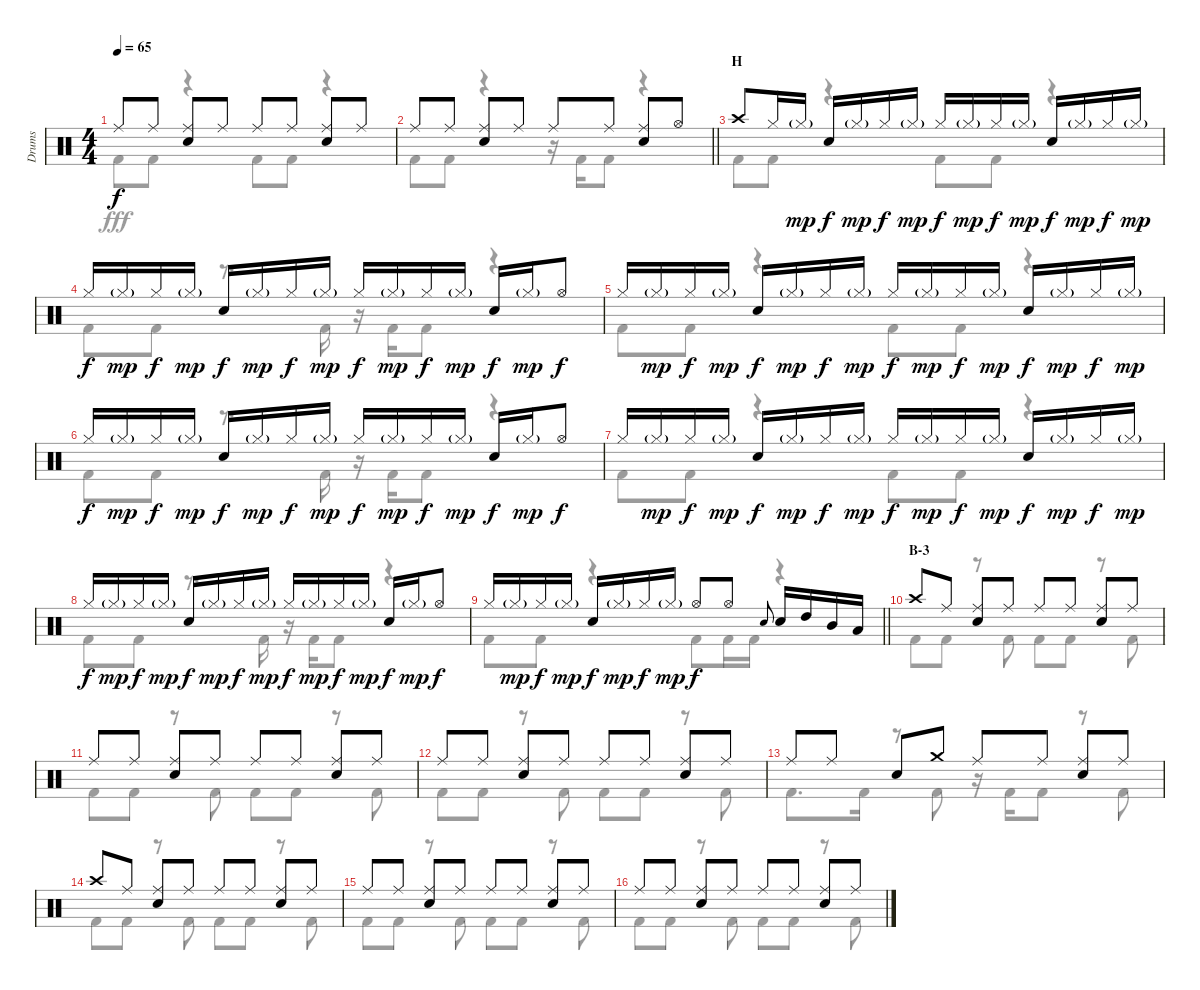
\track ("Drums" "Drums") {instrument percussion}
\staff {score}
\articulation defaults
\voice
\ts (4 4)
\tempo 65
\clef neutral
\ks c "Ride (middle)".8{dy f} "Ride (middle)".8
("Ride (middle)" "Snare (hit) 2").8 "Ride (middle)".8 "Ride (middle)".8 "Ride (middle)".8 ("Ride (middle)" "Snare (hit) 2").8 "Ride (middle)".8 |
\barLineRight lightlight "Ride (middle)".8 "Ride (middle)".8
("Ride (middle)" "Snare (hit) 2").8 "Ride (middle)".8 "Ride (middle)".8 "Ride (middle)".8 ("Ride (middle)" "Snare (hit) 2").8 "Hi-Hat (open)".8 |
\section ("" "H")
"Crash high (hit)".8 "Hi-Hat (closed)".16 "Hi-Hat (closed)"{g}.16{dy mp} "Snare (hit) 2".16{dy f} "Hi-Hat (closed)"{g}.16{dy mp} "Hi-Hat (closed)".16{dy f} "Hi-Hat (closed)"{g}.16{dy mp} "Hi-Hat (closed)".16{dy f} "Hi-Hat (closed)"{g}.16{dy mp} "Hi-Hat (closed)".16{dy f} "Hi-Hat (closed)"{g}.16{dy mp} "Snare (hit) 2".16{dy f} "Hi-Hat (closed)"{g}.16{dy mp} "Hi-Hat (closed)".16{dy f} "Hi-Hat (closed)"{g}.16{dy mp} |
"Hi-Hat (closed)".16{dy f} "Hi-Hat (closed)"{g}.16{dy mp} "Hi-Hat (closed)".16{dy f} "Hi-Hat (closed)"{g}.16{dy mp} "Snare (hit) 2".16{dy f} "Hi-Hat (closed)"{g}.16{dy mp} "Hi-Hat (closed)".16{dy f} "Hi-Hat (closed)"{g}.16{dy mp} "Hi-Hat (closed)".16{dy f} "Hi-Hat (closed)"{g}.16{dy mp} "Hi-Hat (closed)".16{dy f} "Hi-Hat (closed)"{g}.16{dy mp} "Snare (hit) 2".16{dy f} "Hi-Hat (closed)"{g}.16{dy mp} "Hi-Hat (open)".8{dy f} |
"Hi-Hat (closed)".16 "Hi-Hat (closed)"{g}.16{dy mp} "Hi-Hat (closed)".16{dy f} "Hi-Hat (closed)"{g}.16{dy mp} "Snare (hit) 2".16{dy f} "Hi-Hat (closed)"{g}.16{dy mp} "Hi-Hat (closed)".16{dy f} "Hi-Hat (closed)"{g}.16{dy mp} "Hi-Hat (closed)".16{dy f} "Hi-Hat (closed)"{g}.16{dy mp} "Hi-Hat (closed)".16{dy f} "Hi-Hat (closed)"{g}.16{dy mp} "Snare (hit) 2".16{dy f} "Hi-Hat (closed)"{g}.16{dy mp} "Hi-Hat (closed)".16{dy f} "Hi-Hat (closed)"{g}.16{dy mp} |
"Hi-Hat (closed)".16{dy f} "Hi-Hat (closed)"{g}.16{dy mp} "Hi-Hat (closed)".16{dy f} "Hi-Hat (closed)"{g}.16{dy mp} "Snare (hit) 2".16{dy f} "Hi-Hat (closed)"{g}.16{dy mp} "Hi-Hat (closed)".16{dy f} "Hi-Hat (closed)"{g}.16{dy mp} "Hi-Hat (closed)".16{dy f} "Hi-Hat (closed)"{g}.16{dy mp} "Hi-Hat (closed)".16{dy f} "Hi-Hat (closed)"{g}.16{dy mp} "Snare (hit) 2".16{dy f} "Hi-Hat (closed)"{g}.16{dy mp} "Hi-Hat (open)".8{dy f} |
"Hi-Hat (closed)".16 "Hi-Hat (closed)"{g}.16{dy mp} "Hi-Hat (closed)".16{dy f} "Hi-Hat (closed)"{g}.16{dy mp} "Snare (hit) 2".16{dy f} "Hi-Hat (closed)"{g}.16{dy mp} "Hi-Hat (closed)".16{dy f} "Hi-Hat (closed)"{g}.16{dy mp} "Hi-Hat (closed)".16{dy f} "Hi-Hat (closed)"{g}.16{dy mp} "Hi-Hat (closed)".16{dy f} "Hi-Hat (closed)"{g}.16{dy mp} "Snare (hit) 2".16{dy f} "Hi-Hat (closed)"{g}.16{dy mp} "Hi-Hat (closed)".16{dy f} "Hi-Hat (closed)"{g}.16{dy mp} |
"Hi-Hat (closed)".16{dy f} "Hi-Hat (closed)"{g}.16{dy mp} "Hi-Hat (closed)".16{dy f} "Hi-Hat (closed)"{g}.16{dy mp} "Snare (hit) 2".16{dy f} "Hi-Hat (closed)"{g}.16{dy mp} "Hi-Hat (closed)".16{dy f} "Hi-Hat (closed)"{g}.16{dy mp} "Hi-Hat (closed)".16{dy f} "Hi-Hat (closed)"{g}.16{dy mp} "Hi-Hat (closed)".16{dy f} "Hi-Hat (closed)"{g}.16{dy mp} "Snare (hit) 2".16{dy f} "Hi-Hat (closed)"{g}.16{dy mp} "Hi-Hat (open)".8{dy f} |
\barLineRight lightlight "Hi-Hat (closed)".16 "Hi-Hat (closed)"{g}.16{dy mp} "Hi-Hat (closed)".16{dy f} "Hi-Hat (closed)"{g}.16{dy mp} "Snare (hit) 2".16{dy f} "Hi-Hat (closed)"{g}.16{dy mp} "Hi-Hat (closed)".16{dy f} "Hi-Hat (closed)"{g}.16{dy mp} "Hi-Hat (open)".8{dy f} "Hi-Hat (open)".8 "Snare (hit) 2".8{gr onbeat} "Snare (hit) 2".16 "High Tom (hit)".16 "Mid Tom (hit)".16 "Low Tom (hit)".16
|
\section ("" "B-3")
"Crash high (hit)".8 "Ride (middle)".8 ("Ride (middle)" "Snare (hit) 2").8 "Ride (middle)".8 "Ride (middle)".8 "Ride (middle)".8 ("Ride (middle)" "Snare (hit) 2").8 "Ride (middle)".8 |
"Ride (middle)".8 "Ride (middle)".8 ("Ride (middle)" "Snare (hit) 2").8 "Ride (middle)".8 "Ride (middle)".8 "Ride (middle)".8 ("Ride (middle)" "Snare (hit) 2").8 "Ride (middle)".8 |
"Ride (middle)".8 "Ride (middle)".8 ("Ride (middle)" "Snare (hit) 2").8 "Ride (middle)".8 "Ride (middle)".8 "Ride (middle)".8 ("Ride (middle)" "Snare (hit) 2").8 "Ride (middle)".8 |
"Ride (middle)".8 "Ride (middle)".8 "Snare (hit) 2".8 "Crash medium (hit)".8 "Ride (middle)".8 "Ride (middle)".8 ("Ride (middle)" "Snare (hit) 2").8 "Ride (middle)".8 |
"Crash high (hit)".8 "Ride (middle)".8 ("Ride (middle)" "Snare (hit) 2").8 "Ride (middle)".8 "Ride (middle)".8 "Ride (middle)".8 ("Ride (middle)" "Snare (hit) 2").8 "Ride (middle)".8 |
"Ride (middle)".8 "Ride (middle)".8 ("Ride (middle)" "Snare (hit) 2").8 "Ride (middle)".8 "Ride (middle)".8 "Ride (middle)".8 ("Ride (middle)" "Snare (hit) 2").8 "Ride (middle)".8 |
"Ride (middle)".8 "Ride (middle)".8 ("Ride (middle)" "Snare (hit) 2").8 "Ride (middle)".8 "Ride (middle)".8 "Ride (middle)".8 ("Ride (middle)" "Snare (hit) 2").8 "Ride (middle)".8
\voice
\clef neutral
\ottava regular
\simile none
\ks c "Kick (hit) 2".8{dy fff} "Kick (hit) 2".8
r.4 "Kick (hit) 2".8 "Kick (hit) 2".8 r.4 |
\barLineRight lightlight "Kick (hit) 2".8 "Kick (hit) 2".8
r.4 r.16 "Kick (hit) 2".16 "Kick (hit) 2".8 r.4 |
"Kick (hit) 2".8 "Kick (hit) 2".8 r.4 "Kick (hit) 2".8 "Kick (hit) 2".8 r.4 |
"Kick (hit) 2".8 "Kick (hit) 2".8 r.8{d} "Kick (hit) 2".16 r.16 "Kick (hit) 2".16 "Kick (hit) 2".8 r.4 |
"Kick (hit) 2".8 "Kick (hit) 2".8 r.4 "Kick (hit) 2".8 "Kick (hit) 2".8 r.4 |
"Kick (hit) 2".8 "Kick (hit) 2".8 r.8{d} "Kick (hit) 2".16 r.16 "Kick (hit) 2".16 "Kick (hit) 2".8 r.4 |
"Kick (hit) 2".8 "Kick (hit) 2".8 r.4 "Kick (hit) 2".8 "Kick (hit) 2".8 r.4 |
"Kick (hit) 2".8 "Kick (hit) 2".8 r.8{d} "Kick (hit) 2".16 r.16 "Kick (hit) 2".16 "Kick (hit) 2".8 r.4 |
\barLineRight lightlight "Kick (hit) 2".8 "Kick (hit) 2".8
r.4 "Kick (hit) 2".8 "Kick (hit) 2".16 "Kick (hit) 2".16 r.4 |
"Kick (hit) 2".8 "Kick (hit) 2".8 r.8 "Kick (hit) 2".8 "Kick (hit) 2".8 "Kick (hit) 2".8 r.8 "Kick (hit) 2".8 |
"Kick (hit) 2".8 "Kick (hit) 2".8 r.8 "Kick (hit) 2".8 "Kick (hit) 2".8 "Kick (hit) 2".8 r.8 "Kick (hit) 2".8 |
"Kick (hit) 2".8 "Kick (hit) 2".8 r.8 "Kick (hit) 2".8 "Kick (hit) 2".8 "Kick (hit) 2".8 r.8 "Kick (hit) 2".8 |
"Kick (hit) 2".8{d} "Kick (hit) 2".16 r.8 "Kick (hit) 2".8 r.16 "Kick (hit) 2".16 "Kick (hit) 2".8 r.8 "Kick (hit) 2".8 |
"Kick (hit) 2".8 "Kick (hit) 2".8 r.8 "Kick (hit) 2".8 "Kick (hit) 2".8 "Kick (hit) 2".8 r.8 "Kick (hit) 2".8 |
"Kick (hit) 2".8 "Kick (hit) 2".8 r.8 "Kick (hit) 2".8 "Kick (hit) 2".8 "Kick (hit) 2".8 r.8 "Kick (hit) 2".8 |
"Kick (hit) 2".8 "Kick (hit) 2".8 r.8 "Kick (hit) 2".8 "Kick (hit) 2".8 "Kick (hit) 2".8 r.8 "Kick (hit) 2".8
